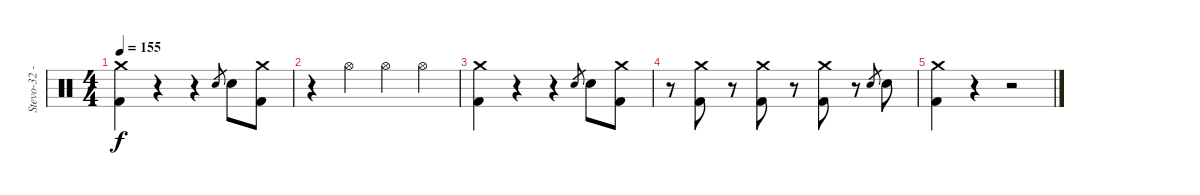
\track ("Stevo-32 - Drums" "Stevo-32 -") {instrument percussion}
\staff {score}
\articulation defaults
\ts (4 4)
\tempo 155
\clef neutral
\ks c
("Crash medium (hit)" "Kick (hit) 2").4{dy f} r.4 r.4 "Electric Snare (hit)".8{gr} "Electric Snare (hit)".8 ("Crash medium (hit)" "Kick (hit) 2").8 |
r.4 "Hi-Hat (open)".4 "Hi-Hat (open)".4 "Hi-Hat (open)".4 |
("Crash medium (hit)" "Kick (hit) 2").4 r.4 r.4 "Electric Snare (hit)".8{gr} "Electric Snare (hit)".8 ("Crash medium (hit)" "Kick (hit) 2").8 |
r.8 ("Crash medium (hit)" "Kick (hit) 2").8 r.8 ("Crash medium (hit)" "Kick (hit) 2").8 r.8 ("Crash medium (hit)" "Kick (hit) 2").8 r.8 "Electric Snare (hit)".8{gr} "Electric Snare (hit)".8 |
("Crash medium (hit)" "Kick (hit) 2").4 r.4 r.2
